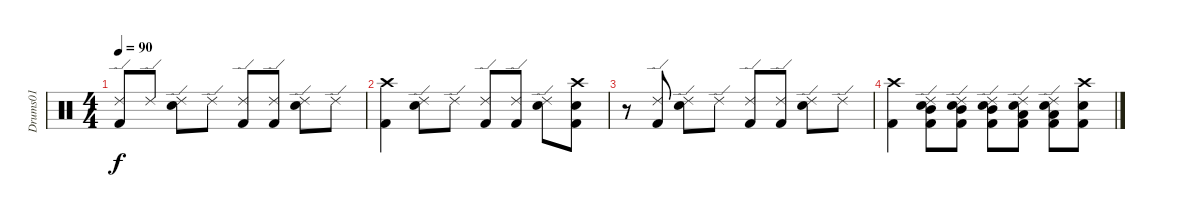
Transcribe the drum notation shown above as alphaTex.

\track ("Drums01" "Drums01") {instrument percussion}
\staff {score}
\articulation defaults
\ts (4 4)
\tempo 90
\clef neutral
\ks c
("Ride (edge) 2" "Kick (hit) 2").8{dy f} "Ride (edge) 2".8 ("Ride (edge) 2" "Snare (hit) 2").8 "Ride (edge) 2".8 ("Ride (edge) 2" "Kick (hit) 2").8 ("Ride (edge) 2" "Kick (hit) 2").8 ("Ride (edge) 2" "Snare (hit) 2").8 "Ride (edge) 2".8 |
("Crash high (hit)" "Kick (hit) 2").4 ("Ride (edge) 2" "Snare (hit) 2").8 "Ride (edge) 2".8 ("Ride (edge) 2" "Kick (hit) 2").8 ("Ride (edge) 2" "Kick (hit) 2").8 ("Ride (edge) 2" "Snare (hit) 2").8 ("Crash high (hit)" "Snare (hit) 2" "Kick (hit) 2").8 |
r.8 ("Ride (edge) 2" "Kick (hit) 2").8 ("Ride (edge) 2" "Snare (hit) 2").8 "Ride (edge) 2".8 ("Ride (edge) 2" "Kick (hit) 2").8 ("Ride (edge) 2" "Kick (hit) 2").8 ("Ride (edge) 2" "Snare (hit) 2").8 "Ride (edge) 2".8 |
("Crash high (hit)" "Kick (hit) 2").4 ("Ride (edge) 2" "Mid Tom (hit)" "Snare (hit) 2" "Kick (hit) 2").8 ("Ride (edge) 2" "Mid Tom (hit)" "Snare (hit) 2" "Kick (hit) 2").8 ("Ride (edge) 2" "Mid Tom (hit)" "Snare (hit) 2" "Kick (hit) 2").8 ("Ride (edge) 2" "Low Tom (hit)" "Snare (hit) 2" "Kick (hit) 2").8 ("Ride (edge) 2" "Low Tom (hit)" "Snare (hit) 2" "Kick (hit) 2").8 ("Crash high (hit)" "Snare (hit) 2" "Kick (hit) 2").8
